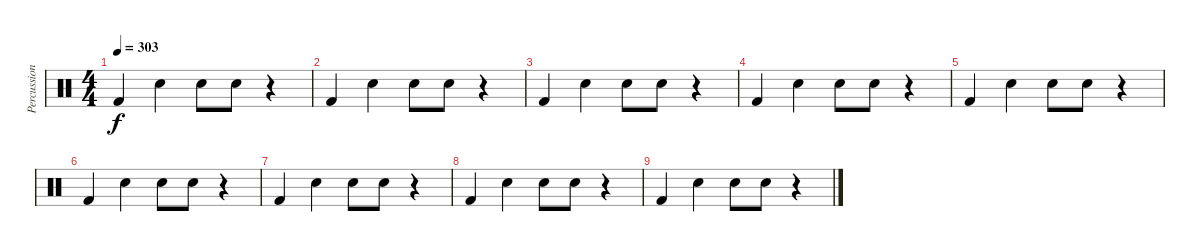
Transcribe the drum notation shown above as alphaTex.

\track ("Percussions" "Percussion") {instrument percussion}
\staff {score}
\articulation defaults
\ts (4 4)
\tempo 303
\clef neutral
\ks c "Kick (hit) 2".4{dy f} "Electric Snare (hit)".4 "Electric Snare (hit)".8 "Electric Snare (hit)".8
r.4 |
"Kick (hit) 2".4 "Electric Snare (hit)".4 "Electric Snare (hit)".8 "Electric Snare (hit)".8 r.4 |
"Kick (hit) 2".4 "Electric Snare (hit)".4 "Electric Snare (hit)".8 "Electric Snare (hit)".8 r.4 |
"Kick (hit) 2".4 "Electric Snare (hit)".4 "Electric Snare (hit)".8 "Electric Snare (hit)".8 r.4 |
"Kick (hit) 2".4 "Electric Snare (hit)".4 "Electric Snare (hit)".8 "Electric Snare (hit)".8 r.4 |
"Kick (hit) 2".4 "Electric Snare (hit)".4 "Electric Snare (hit)".8 "Electric Snare (hit)".8 r.4 |
"Kick (hit) 2".4 "Electric Snare (hit)".4 "Electric Snare (hit)".8 "Electric Snare (hit)".8 r.4 |
"Kick (hit) 2".4 "Electric Snare (hit)".4 "Electric Snare (hit)".8 "Electric Snare (hit)".8 r.4 |
"Kick (hit) 2".4 "Electric Snare (hit)".4 "Electric Snare (hit)".8 "Electric Snare (hit)".8 r.4
